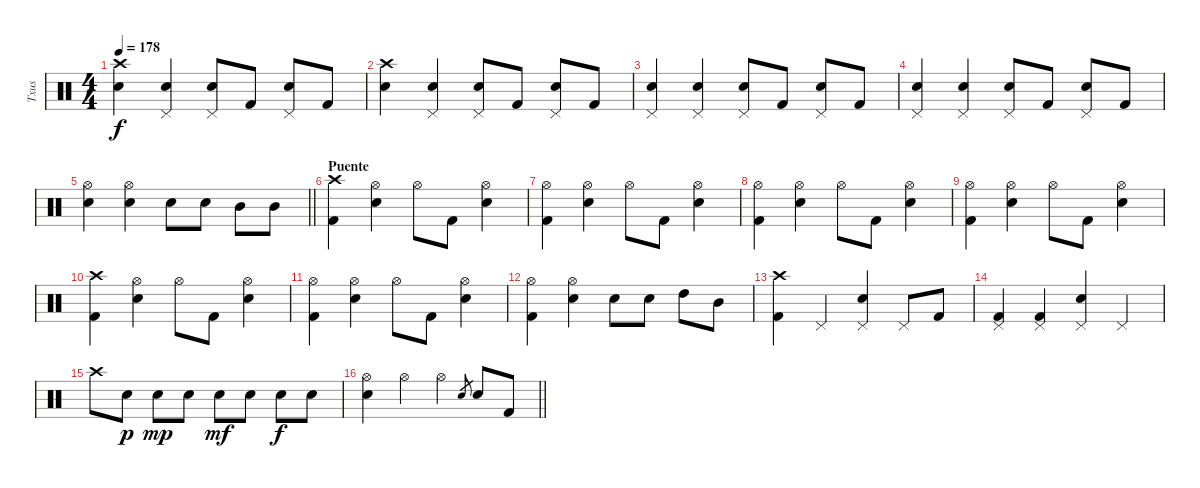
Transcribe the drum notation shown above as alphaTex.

\track ("Txus" "Txus") {instrument percussion}
\staff {score}
\articulation defaults
\ts (4 4)
\tempo 178
\clef neutral
\ks c
("Crash high (hit)" "Electric Snare (hit)").4{dy f} ("Pedal Hi-Hat (hit)" "Electric Snare (hit)").4 ("Pedal Hi-Hat (hit)" "Electric Snare (hit)").8 "Kick (hit) 2".8 ("Pedal Hi-Hat (hit)" "Electric Snare (hit)").8 "Kick (hit) 2".8 |
("Crash high (hit)" "Electric Snare (hit)").4 ("Pedal Hi-Hat (hit)" "Electric Snare (hit)").4 ("Pedal Hi-Hat (hit)" "Electric Snare (hit)").8 "Kick (hit) 2".8 ("Pedal Hi-Hat (hit)" "Electric Snare (hit)").8 "Kick (hit) 2".8 |
("Pedal Hi-Hat (hit)" "Electric Snare (hit)").4 ("Pedal Hi-Hat (hit)" "Electric Snare (hit)").4 ("Pedal Hi-Hat (hit)" "Electric Snare (hit)").8 "Kick (hit) 2".8 ("Pedal Hi-Hat (hit)" "Electric Snare (hit)").8 "Kick (hit) 2".8 |
("Pedal Hi-Hat (hit)" "Electric Snare (hit)").4 ("Pedal Hi-Hat (hit)" "Electric Snare (hit)").4 ("Pedal Hi-Hat (hit)" "Electric Snare (hit)").8 "Kick (hit) 2".8 ("Pedal Hi-Hat (hit)" "Electric Snare (hit)").8 "Kick (hit) 2".8 |
\barLineRight lightlight
("Hi-Hat (open)" "Electric Snare (hit)").4 ("Hi-Hat (open)" "Electric Snare (hit)").4 "Electric Snare (hit)".8 "Electric Snare (hit)".8 "Mid Tom (hit)".8 "Mid Tom (hit)".8 |
\section ("" "Puente")
("Crash high (hit)" "Kick (hit) 2").4 ("Hi-Hat (open)" "Electric Snare (hit)").4 "Hi-Hat (open)".8 "Kick (hit) 2".8 ("Hi-Hat (open)" "Electric Snare (hit)").4 |
("Hi-Hat (open)" "Kick (hit) 2").4 ("Hi-Hat (open)" "Electric Snare (hit)").4 "Hi-Hat (open)".8 "Kick (hit) 2".8 ("Hi-Hat (open)" "Electric Snare (hit)").4 |
("Hi-Hat (open)" "Kick (hit) 2").4 ("Hi-Hat (open)" "Electric Snare (hit)").4 "Hi-Hat (open)".8 "Kick (hit) 2".8 ("Hi-Hat (open)" "Electric Snare (hit)").4 |
("Hi-Hat (open)" "Kick (hit) 2").4 ("Hi-Hat (open)" "Electric Snare (hit)").4 "Hi-Hat (open)".8 "Kick (hit) 2".8 ("Hi-Hat (open)" "Electric Snare (hit)").4 |
("Crash high (hit)" "Kick (hit) 2").4 ("Hi-Hat (open)" "Electric Snare (hit)").4 "Hi-Hat (open)".8 "Kick (hit) 2".8 ("Hi-Hat (open)" "Electric Snare (hit)").4 |
("Hi-Hat (open)" "Kick (hit) 2").4 ("Hi-Hat (open)" "Electric Snare (hit)").4 "Hi-Hat (open)".8 "Kick (hit) 2".8 ("Hi-Hat (open)" "Electric Snare (hit)").4 |
("Hi-Hat (open)" "Kick (hit) 2").4 ("Hi-Hat (open)" "Electric Snare (hit)").4 "Electric Snare (hit)".8 "Electric Snare (hit)".8 "High Tom (hit)".8 "Mid Tom (hit)".8 |
("Crash high (hit)" "Kick (hit) 2").4 "Pedal Hi-Hat (hit)".4 ("Pedal Hi-Hat (hit)" "Electric Snare (hit)").4 "Pedal Hi-Hat (hit)".8 "Kick (hit) 2".8 |
("Pedal Hi-Hat (hit)" "Kick (hit) 2").4 ("Pedal Hi-Hat (hit)" "Kick (hit) 2").4 ("Pedal Hi-Hat (hit)" "Electric Snare (hit)").4 "Pedal Hi-Hat (hit)".4 |
"Crash high (hit)".8 "Electric Snare (hit)".8{dy p} "Electric Snare (hit)".8{dy mp} "Electric Snare (hit)".8 "Electric Snare (hit)".8{dy mf} "Electric Snare (hit)".8 "Electric Snare (hit)".8{dy f} "Electric Snare (hit)".8 |
\barLineRight lightlight
("Hi-Hat (open)" "Electric Snare (hit)").4 "Hi-Hat (open)".4 "Hi-Hat (open)".4 "Electric Snare (hit)".8{gr} "Electric Snare (hit)".8 "Kick (hit) 2".8
